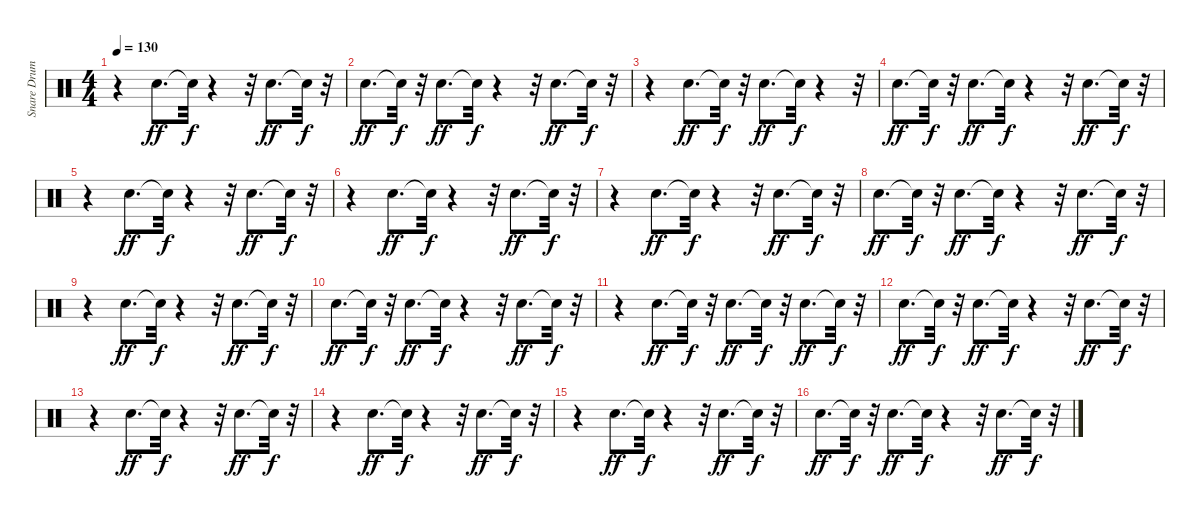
\track ("Snare Drum" "Snare Drum") {instrument percussion}
\staff {score}
\articulation defaults
\ts (4 4)
\tempo 130
\clef neutral
\ks c
r.4{dy f} "Snare (hit) 2".8{d dy ff} "Snare (hit)"{t}.32{dy f} r.4 r.32 "Snare (hit) 2".8{d dy ff} "Snare (hit)"{t}.32{dy f} r.32 |
"Snare (hit) 2".8{d dy ff} "Snare (hit)"{t}.32{dy f} r.32 "Snare (hit) 2".8{d dy ff} "Snare (hit)"{t}.32{dy f} r.4 r.32 "Snare (hit) 2".8{d dy ff} "Snare (hit)"{t}.32{dy f} r.32 |
r.4 "Snare (hit) 2".8{d dy ff} "Snare (hit)"{t}.32{dy f} r.32 "Snare (hit) 2".8{d dy ff} "Snare (hit)"{t}.32{dy f} r.4 r.32 |
"Snare (hit) 2".8{d dy ff} "Snare (hit)"{t}.32{dy f} r.32 "Snare (hit) 2".8{d dy ff} "Snare (hit)"{t}.32{dy f} r.4 r.32 "Snare (hit) 2".8{d dy ff} "Snare (hit)"{t}.32{dy f} r.32 |
r.4 "Snare (hit) 2".8{d dy ff} "Snare (hit)"{t}.32{dy f} r.4 r.32 "Snare (hit) 2".8{d dy ff} "Snare (hit)"{t}.32{dy f} r.32 |
r.4 "Snare (hit) 2".8{d dy ff} "Snare (hit)"{t}.32{dy f} r.4 r.32 "Snare (hit) 2".8{d dy ff} "Snare (hit)"{t}.32{dy f} r.32 |
r.4 "Snare (hit) 2".8{d dy ff} "Snare (hit)"{t}.32{dy f} r.4 r.32 "Snare (hit) 2".8{d dy ff} "Snare (hit)"{t}.32{dy f} r.32 |
"Snare (hit) 2".8{d dy ff} "Snare (hit)"{t}.32{dy f} r.32 "Snare (hit) 2".8{d dy ff} "Snare (hit)"{t}.32{dy f} r.4 r.32 "Snare (hit) 2".8{d dy ff} "Snare (hit)"{t}.32{dy f} r.32 |
r.4 "Snare (hit) 2".8{d dy ff} "Snare (hit)"{t}.32{dy f} r.4 r.32 "Snare (hit) 2".8{d dy ff} "Snare (hit)"{t}.32{dy f} r.32 |
"Snare (hit) 2".8{d dy ff} "Snare (hit)"{t}.32{dy f} r.32 "Snare (hit) 2".8{d dy ff} "Snare (hit)"{t}.32{dy f} r.4 r.32 "Snare (hit) 2".8{d dy ff} "Snare (hit)"{t}.32{dy f} r.32 |
r.4 "Snare (hit) 2".8{d dy ff} "Snare (hit)"{t}.32{dy f} r.32 "Snare (hit) 2".8{d dy ff} "Snare (hit)"{t}.32{dy f} r.32 "Snare (hit) 2".8{d dy ff} "Snare (hit)"{t}.32{dy f} r.32 |
"Snare (hit) 2".8{d dy ff} "Snare (hit)"{t}.32{dy f} r.32 "Snare (hit) 2".8{d dy ff} "Snare (hit)"{t}.32{dy f} r.4 r.32 "Snare (hit) 2".8{d dy ff} "Snare (hit)"{t}.32{dy f} r.32 |
r.4 "Snare (hit) 2".8{d dy ff} "Snare (hit)"{t}.32{dy f} r.4 r.32 "Snare (hit) 2".8{d dy ff} "Snare (hit)"{t}.32{dy f} r.32 |
r.4 "Snare (hit) 2".8{d dy ff} "Snare (hit)"{t}.32{dy f} r.4 r.32 "Snare (hit) 2".8{d dy ff} "Snare (hit)"{t}.32{dy f} r.32 |
r.4 "Snare (hit) 2".8{d dy ff} "Snare (hit)"{t}.32{dy f} r.4 r.32 "Snare (hit) 2".8{d dy ff} "Snare (hit)"{t}.32{dy f} r.32 |
"Snare (hit) 2".8{d dy ff} "Snare (hit)"{t}.32{dy f} r.32 "Snare (hit) 2".8{d dy ff} "Snare (hit)"{t}.32{dy f} r.4 r.32 "Snare (hit) 2".8{d dy ff} "Snare (hit)"{t}.32{dy f} r.32
